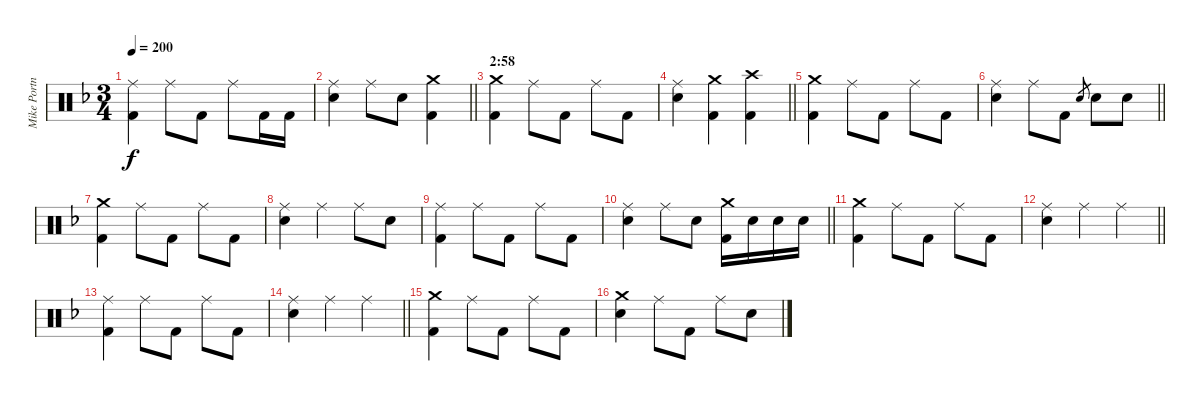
\track ("Mike Portnoy (Drums)" "Mike Portn") {instrument percussion}
\staff {score}
\articulation defaults
\ts (3 4)
\tempo 200
\clef neutral
\ks f
("Ride (middle)" "Kick (hit) 2").4{dy f} "Ride (middle)".8 "Kick (hit) 2".8 "Ride (middle)".8 "Kick (hit) 2".16 "Kick (hit) 2".16 |
\barLineRight lightlight
("Ride (middle)" "Electric Snare (hit)").4 "Ride (middle)".8 "Electric Snare (hit)".8 ("Crash medium (hit)" "Kick (hit) 2").4 |
\section ("" "2:58")
("Crash medium (hit)" "Kick (hit) 2").4 "Ride (middle)".8 "Kick (hit) 2".8 "Ride (middle)".8 "Kick (hit) 2".8 |
\barLineRight lightlight
("Ride (middle)" "Electric Snare (hit)").4 ("Crash medium (hit)" "Kick (hit) 2").4 ("Crash high (hit)" "Kick (hit) 2").4 |
("Crash medium (hit)" "Kick (hit) 2").4 "Ride (middle)".8 "Kick (hit) 2".8 "Ride (middle)".8 "Kick (hit) 2".8 |
\barLineRight lightlight
("Ride (middle)" "Electric Snare (hit)").4 "Ride (middle)".8 "Kick (hit) 2".8 "Electric Snare (hit)".8{gr} "Electric Snare (hit)".8 "Electric Snare (hit)".8 |
("Crash medium (hit)" "Kick (hit) 2").4 "Ride (middle)".8 "Kick (hit) 2".8 "Ride (middle)".8 "Kick (hit) 2".8 |
("Ride (middle)" "Electric Snare (hit)").4 "Ride (middle)".4 "Ride (middle)".8 "Electric Snare (hit)".8 |
("Ride (middle)" "Kick (hit) 2").4 "Ride (middle)".8 "Kick (hit) 2".8 "Ride (middle)".8 "Kick (hit) 2".8 |
\barLineRight lightlight
("Ride (middle)" "Electric Snare (hit)").4 "Ride (middle)".8 "Electric Snare (hit)".8 ("Crash medium (hit)" "Kick (hit) 2").16 "Electric Snare (hit)".16 "Electric Snare (hit)".16 "Electric Snare (hit)".16 |
\section ("" "")
("Crash medium (hit)" "Kick (hit) 2").4 "Ride (middle)".8 "Kick (hit) 2".8 "Ride (middle)".8 "Kick (hit) 2".8 |
\barLineRight lightlight
("Ride (middle)" "Electric Snare (hit)").4 "Ride (middle)".4 "Ride (middle)".4 |
("Ride (middle)" "Kick (hit) 2").4 "Ride (middle)".8 "Kick (hit) 2".8 "Ride (middle)".8 "Kick (hit) 2".8 |
\barLineRight lightlight
("Ride (middle)" "Electric Snare (hit)").4 "Ride (middle)".4 "Ride (middle)".4 |
("Crash medium (hit)" "Kick (hit) 2").4 "Ride (middle)".8 "Kick (hit) 2".8 "Ride (middle)".8 "Kick (hit) 2".8 |
("Crash medium (hit)" "Electric Snare (hit)").4 "Ride (middle)".8 "Kick (hit) 2".8 "Ride (middle)".8 "Electric Snare (hit)".8
